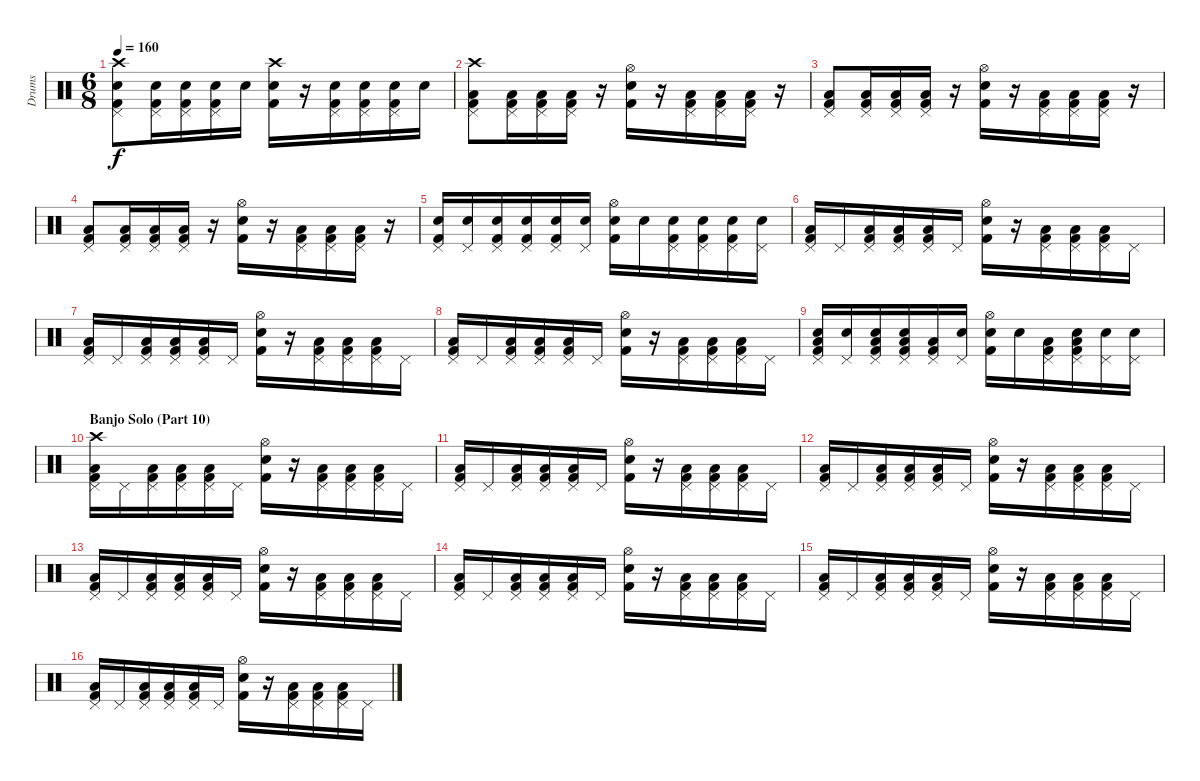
\track ("Drums" "Drums") {instrument percussion}
\staff {score}
\articulation defaults
\ts (6 8)
\tempo 160
\clef neutral
\ks c
("Crash high (hit)" "Pedal Hi-Hat (hit)" "Electric Snare (hit)" "Kick (hit) 2").8{dy f} ("Pedal Hi-Hat (hit)" "Electric Snare (hit)" "Kick (hit) 2").16 ("Pedal Hi-Hat (hit)" "Electric Snare (hit)" "Kick (hit) 2").16 ("Pedal Hi-Hat (hit)" "Electric Snare (hit)" "Kick (hit) 2").16 "Electric Snare (hit)".16 ("Crash high (hit)" "Snare (hit) 2" "Kick (hit) 2").16 r.16 ("Pedal Hi-Hat (hit)" "Electric Snare (hit)" "Kick (hit) 2").16 ("Pedal Hi-Hat (hit)" "Electric Snare (hit)" "Kick (hit) 2").16 ("Pedal Hi-Hat (hit)" "Electric Snare (hit)" "Kick (hit) 2").16 "Electric Snare (hit)".16 |
("Crash high (hit)" "Pedal Hi-Hat (hit)" "Low Floor Tom (hit)" "Kick (hit) 2").8 ("Pedal Hi-Hat (hit)" "Low Floor Tom (hit)" "Kick (hit) 2").16 ("Pedal Hi-Hat (hit)" "Low Floor Tom (hit)" "Kick (hit) 2").16 ("Pedal Hi-Hat (hit)" "Low Floor Tom (hit)" "Kick (hit) 2").16 r.16 ("Hi-Hat (open)" "Snare (hit) 2" "Kick (hit) 2").16 r.16 ("Pedal Hi-Hat (hit)" "Low Floor Tom (hit)" "Kick (hit) 2").16 ("Pedal Hi-Hat (hit)" "Low Floor Tom (hit)" "Kick (hit) 2").16 ("Pedal Hi-Hat (hit)" "Low Floor Tom (hit)" "Kick (hit) 2").16 r.16 |
("Pedal Hi-Hat (hit)" "Low Floor Tom (hit)" "Kick (hit) 2").8 ("Pedal Hi-Hat (hit)" "Low Floor Tom (hit)" "Kick (hit) 2").16 ("Pedal Hi-Hat (hit)" "Low Floor Tom (hit)" "Kick (hit) 2").16 ("Pedal Hi-Hat (hit)" "Low Floor Tom (hit)" "Kick (hit) 2").16 r.16 ("Hi-Hat (open)" "Snare (hit) 2" "Kick (hit) 2").16 r.16 ("Pedal Hi-Hat (hit)" "Low Floor Tom (hit)" "Kick (hit) 2").16 ("Pedal Hi-Hat (hit)" "Low Floor Tom (hit)" "Kick (hit) 2").16 ("Pedal Hi-Hat (hit)" "Low Floor Tom (hit)" "Kick (hit) 2").16 r.16 |
("Pedal Hi-Hat (hit)" "Low Floor Tom (hit)" "Kick (hit) 2").8 ("Pedal Hi-Hat (hit)" "Low Floor Tom (hit)" "Kick (hit) 2").16 ("Pedal Hi-Hat (hit)" "Low Floor Tom (hit)" "Kick (hit) 2").16 ("Pedal Hi-Hat (hit)" "Low Floor Tom (hit)" "Kick (hit) 2").16 r.16 ("Hi-Hat (open)" "Snare (hit) 2" "Kick (hit) 2").16 r.16 ("Pedal Hi-Hat (hit)" "Low Floor Tom (hit)" "Kick (hit) 2").16 ("Pedal Hi-Hat (hit)" "Low Floor Tom (hit)" "Kick (hit) 2").16 ("Pedal Hi-Hat (hit)" "Low Floor Tom (hit)" "Kick (hit) 2").16 r.16 |
("Pedal Hi-Hat (hit)" "Electric Snare (hit)" "Kick (hit) 2").16 ("Pedal Hi-Hat (hit)" "Electric Snare (hit)").16 ("Pedal Hi-Hat (hit)" "Electric Snare (hit)" "Kick (hit) 2").16 ("Pedal Hi-Hat (hit)" "Electric Snare (hit)" "Kick (hit) 2").16 ("Pedal Hi-Hat (hit)" "Electric Snare (hit)" "Kick (hit) 2").16 ("Pedal Hi-Hat (hit)" "Electric Snare (hit)").16 ("Hi-Hat (open)" "Electric Snare (hit)" "Kick (hit) 2").16 "Electric Snare (hit)".16 ("Pedal Hi-Hat (hit)" "Electric Snare (hit)" "Kick (hit) 2").16 ("Pedal Hi-Hat (hit)" "Electric Snare (hit)" "Kick (hit) 2").16 ("Pedal Hi-Hat (hit)" "Electric Snare (hit)" "Kick (hit) 2").16 ("Pedal Hi-Hat (hit)" "Electric Snare (hit)").16 |
("Pedal Hi-Hat (hit)" "Low Floor Tom (hit)" "Kick (hit) 2").16 "Pedal Hi-Hat (hit)".16 ("Pedal Hi-Hat (hit)" "Low Floor Tom (hit)" "Kick (hit) 2").16 ("Pedal Hi-Hat (hit)" "Low Floor Tom (hit)" "Kick (hit) 2").16 ("Pedal Hi-Hat (hit)" "Low Floor Tom (hit)" "Kick (hit) 2").16 "Pedal Hi-Hat (hit)".16 ("Hi-Hat (open)" "Snare (hit) 2" "Kick (hit) 2").16 r.16 ("Pedal Hi-Hat (hit)" "Low Floor Tom (hit)" "Kick (hit) 2").16 ("Pedal Hi-Hat (hit)" "Low Floor Tom (hit)" "Kick (hit) 2").16 ("Pedal Hi-Hat (hit)" "Low Floor Tom (hit)" "Kick (hit) 2").16 "Pedal Hi-Hat (hit)".16 |
("Pedal Hi-Hat (hit)" "Low Floor Tom (hit)" "Kick (hit) 2").16 "Pedal Hi-Hat (hit)".16 ("Pedal Hi-Hat (hit)" "Low Floor Tom (hit)" "Kick (hit) 2").16 ("Pedal Hi-Hat (hit)" "Low Floor Tom (hit)" "Kick (hit) 2").16 ("Pedal Hi-Hat (hit)" "Low Floor Tom (hit)" "Kick (hit) 2").16 "Pedal Hi-Hat (hit)".16 ("Hi-Hat (open)" "Snare (hit) 2" "Kick (hit) 2").16 r.16 ("Pedal Hi-Hat (hit)" "Low Floor Tom (hit)" "Kick (hit) 2").16 ("Pedal Hi-Hat (hit)" "Low Floor Tom (hit)" "Kick (hit) 2").16 ("Pedal Hi-Hat (hit)" "Low Floor Tom (hit)" "Kick (hit) 2").16 "Pedal Hi-Hat (hit)".16 |
("Pedal Hi-Hat (hit)" "Low Floor Tom (hit)" "Kick (hit) 2").16 "Pedal Hi-Hat (hit)".16 ("Pedal Hi-Hat (hit)" "Low Floor Tom (hit)" "Kick (hit) 2").16 ("Pedal Hi-Hat (hit)" "Low Floor Tom (hit)" "Kick (hit) 2").16 ("Pedal Hi-Hat (hit)" "Low Floor Tom (hit)" "Kick (hit) 2").16 "Pedal Hi-Hat (hit)".16 ("Hi-Hat (open)" "Snare (hit) 2" "Kick (hit) 2").16 r.16 ("Pedal Hi-Hat (hit)" "Low Floor Tom (hit)" "Kick (hit) 2").16 ("Pedal Hi-Hat (hit)" "Low Floor Tom (hit)" "Kick (hit) 2").16 ("Pedal Hi-Hat (hit)" "Low Floor Tom (hit)" "Kick (hit) 2").16 "Pedal Hi-Hat (hit)".16 |
("Pedal Hi-Hat (hit)" "Low Floor Tom (hit)" "Electric Snare (hit)" "Kick (hit) 2").16 ("Pedal Hi-Hat (hit)" "Electric Snare (hit)").16 ("Pedal Hi-Hat (hit)" "Low Floor Tom (hit)" "Electric Snare (hit)" "Kick (hit) 2").16 ("Pedal Hi-Hat (hit)" "Low Floor Tom (hit)" "Electric Snare (hit)" "Kick (hit) 2").16 ("Pedal Hi-Hat (hit)" "Low Floor Tom (hit)" "Kick (hit) 2").16 ("Pedal Hi-Hat (hit)" "Electric Snare (hit)").16 ("Hi-Hat (open)" "Snare (hit) 2" "Kick (hit) 2").16 "Electric Snare (hit)".16 ("Pedal Hi-Hat (hit)" "Low Floor Tom (hit)" "Kick (hit) 2").16 ("Pedal Hi-Hat (hit)" "Low Floor Tom (hit)" "Snare (hit) 2" "Kick (hit) 2").16 ("Pedal Hi-Hat (hit)" "Snare (hit) 2").16 ("Pedal Hi-Hat (hit)" "Snare (hit) 2").16 |
\section ("" "Banjo Solo (Part 10)")
("Crash high (hit)" "Pedal Hi-Hat (hit)" "Low Floor Tom (hit)" "Kick (hit) 2").16 "Pedal Hi-Hat (hit)".16 ("Pedal Hi-Hat (hit)" "Low Floor Tom (hit)" "Kick (hit) 2").16 ("Pedal Hi-Hat (hit)" "Low Floor Tom (hit)" "Kick (hit) 2").16 ("Pedal Hi-Hat (hit)" "Low Floor Tom (hit)" "Kick (hit) 2").16 "Pedal Hi-Hat (hit)".16 ("Hi-Hat (open)" "Snare (hit) 2" "Kick (hit) 2").16 r.16 ("Pedal Hi-Hat (hit)" "Low Floor Tom (hit)" "Kick (hit) 2").16 ("Pedal Hi-Hat (hit)" "Low Floor Tom (hit)" "Kick (hit) 2").16 ("Pedal Hi-Hat (hit)" "Low Floor Tom (hit)" "Kick (hit) 2").16 "Pedal Hi-Hat (hit)".16 |
("Pedal Hi-Hat (hit)" "Low Floor Tom (hit)" "Kick (hit) 2").16 "Pedal Hi-Hat (hit)".16 ("Pedal Hi-Hat (hit)" "Low Floor Tom (hit)" "Kick (hit) 2").16 ("Pedal Hi-Hat (hit)" "Low Floor Tom (hit)" "Kick (hit) 2").16 ("Pedal Hi-Hat (hit)" "Low Floor Tom (hit)" "Kick (hit) 2").16 "Pedal Hi-Hat (hit)".16 ("Hi-Hat (open)" "Snare (hit) 2" "Kick (hit) 2").16 r.16 ("Pedal Hi-Hat (hit)" "Low Floor Tom (hit)" "Kick (hit) 2").16 ("Pedal Hi-Hat (hit)" "Low Floor Tom (hit)" "Kick (hit) 2").16 ("Pedal Hi-Hat (hit)" "Low Floor Tom (hit)" "Kick (hit) 2").16 "Pedal Hi-Hat (hit)".16 |
("Pedal Hi-Hat (hit)" "Low Floor Tom (hit)" "Kick (hit) 2").16 "Pedal Hi-Hat (hit)".16 ("Pedal Hi-Hat (hit)" "Low Floor Tom (hit)" "Kick (hit) 2").16 ("Pedal Hi-Hat (hit)" "Low Floor Tom (hit)" "Kick (hit) 2").16 ("Pedal Hi-Hat (hit)" "Low Floor Tom (hit)" "Kick (hit) 2").16 "Pedal Hi-Hat (hit)".16 ("Hi-Hat (open)" "Snare (hit) 2" "Kick (hit) 2").16 r.16 ("Pedal Hi-Hat (hit)" "Low Floor Tom (hit)" "Kick (hit) 2").16 ("Pedal Hi-Hat (hit)" "Low Floor Tom (hit)" "Kick (hit) 2").16 ("Pedal Hi-Hat (hit)" "Low Floor Tom (hit)" "Kick (hit) 2").16 "Pedal Hi-Hat (hit)".16 |
("Pedal Hi-Hat (hit)" "Low Floor Tom (hit)" "Kick (hit) 2").16 "Pedal Hi-Hat (hit)".16 ("Pedal Hi-Hat (hit)" "Low Floor Tom (hit)" "Kick (hit) 2").16 ("Pedal Hi-Hat (hit)" "Low Floor Tom (hit)" "Kick (hit) 2").16 ("Pedal Hi-Hat (hit)" "Low Floor Tom (hit)" "Kick (hit) 2").16 "Pedal Hi-Hat (hit)".16 ("Hi-Hat (open)" "Snare (hit) 2" "Kick (hit) 2").16 r.16 ("Pedal Hi-Hat (hit)" "Low Floor Tom (hit)" "Kick (hit) 2").16 ("Pedal Hi-Hat (hit)" "Low Floor Tom (hit)" "Kick (hit) 2").16 ("Pedal Hi-Hat (hit)" "Low Floor Tom (hit)" "Kick (hit) 2").16 "Pedal Hi-Hat (hit)".16 |
("Pedal Hi-Hat (hit)" "Low Floor Tom (hit)" "Kick (hit) 2").16 "Pedal Hi-Hat (hit)".16 ("Pedal Hi-Hat (hit)" "Low Floor Tom (hit)" "Kick (hit) 2").16 ("Pedal Hi-Hat (hit)" "Low Floor Tom (hit)" "Kick (hit) 2").16 ("Pedal Hi-Hat (hit)" "Low Floor Tom (hit)" "Kick (hit) 2").16 "Pedal Hi-Hat (hit)".16 ("Hi-Hat (open)" "Snare (hit) 2" "Kick (hit) 2").16 r.16 ("Pedal Hi-Hat (hit)" "Low Floor Tom (hit)" "Kick (hit) 2").16 ("Pedal Hi-Hat (hit)" "Low Floor Tom (hit)" "Kick (hit) 2").16 ("Pedal Hi-Hat (hit)" "Low Floor Tom (hit)" "Kick (hit) 2").16 "Pedal Hi-Hat (hit)".16 |
("Pedal Hi-Hat (hit)" "Low Floor Tom (hit)" "Kick (hit) 2").16 "Pedal Hi-Hat (hit)".16 ("Pedal Hi-Hat (hit)" "Low Floor Tom (hit)" "Kick (hit) 2").16 ("Pedal Hi-Hat (hit)" "Low Floor Tom (hit)" "Kick (hit) 2").16 ("Pedal Hi-Hat (hit)" "Low Floor Tom (hit)" "Kick (hit) 2").16 "Pedal Hi-Hat (hit)".16 ("Hi-Hat (open)" "Snare (hit) 2" "Kick (hit) 2").16 r.16 ("Pedal Hi-Hat (hit)" "Low Floor Tom (hit)" "Kick (hit) 2").16 ("Pedal Hi-Hat (hit)" "Low Floor Tom (hit)" "Kick (hit) 2").16 ("Pedal Hi-Hat (hit)" "Low Floor Tom (hit)" "Kick (hit) 2").16 "Pedal Hi-Hat (hit)".16 |
("Pedal Hi-Hat (hit)" "Low Floor Tom (hit)" "Kick (hit) 2").16 "Pedal Hi-Hat (hit)".16 ("Pedal Hi-Hat (hit)" "Low Floor Tom (hit)" "Kick (hit) 2").16 ("Pedal Hi-Hat (hit)" "Low Floor Tom (hit)" "Kick (hit) 2").16 ("Pedal Hi-Hat (hit)" "Low Floor Tom (hit)" "Kick (hit) 2").16 "Pedal Hi-Hat (hit)".16 ("Hi-Hat (open)" "Snare (hit) 2" "Kick (hit) 2").16 r.16 ("Pedal Hi-Hat (hit)" "Low Floor Tom (hit)" "Kick (hit) 2").16 ("Pedal Hi-Hat (hit)" "Low Floor Tom (hit)" "Kick (hit) 2").16 ("Pedal Hi-Hat (hit)" "Low Floor Tom (hit)" "Kick (hit) 2").16 "Pedal Hi-Hat (hit)".16
